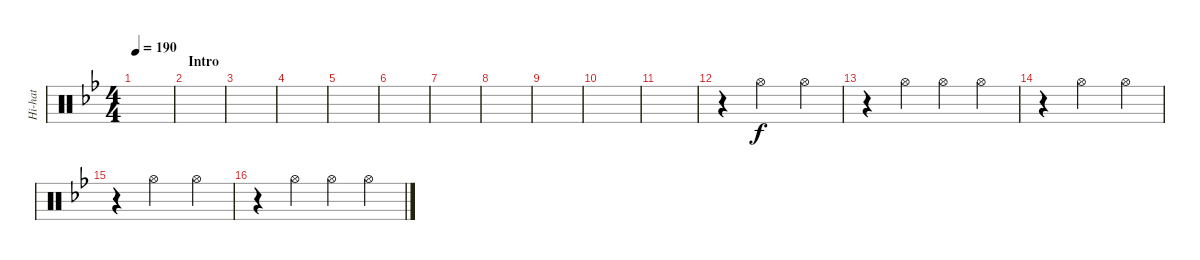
\track ("Hi-hat" "Hi-hat") {instrument percussion}
\staff {score}
\articulation defaults
\ts (4 4)
\tempo 190
\clef neutral
\ks bb
|
\section ("" "Intro")
|
|
|
|
|
|
|
|
|
|
r.4 "Hi-Hat (open)".2 "Hi-Hat (open)".4 |
r.4 "Hi-Hat (open)".4 "Hi-Hat (open)".4 "Hi-Hat (open)".4 |
r.4 "Hi-Hat (open)".2 "Hi-Hat (open)".4 |
r.4 "Hi-Hat (open)".2 "Hi-Hat (open)".4 |
r.4 "Hi-Hat (open)".4 "Hi-Hat (open)".4 "Hi-Hat (open)".4
